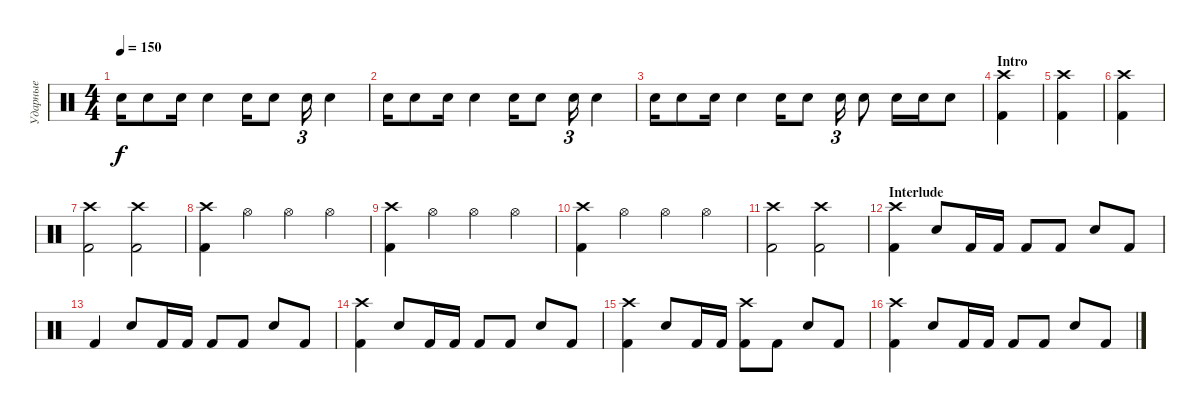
\track ("Ударные" "Ударные") {instrument percussion}
\staff {score}
\articulation defaults
\ts (4 4)
\tempo 150
\clef neutral
\ks c "Electric Snare (hit)".16{dy f} "Electric Snare (hit)".8 "Electric Snare (hit)".16 "Electric Snare (hit)".4 "Electric Snare (hit)".16 "Electric Snare (hit)".8 "Electric Snare (hit)".16{tu (3 2)} "Electric Snare (hit)".4
|
"Electric Snare (hit)".16 "Electric Snare (hit)".8 "Electric Snare (hit)".16 "Electric Snare (hit)".4 "Electric Snare (hit)".16 "Electric Snare (hit)".8 "Electric Snare (hit)".16{tu (3 2)} "Electric Snare (hit)".4 |
"Electric Snare (hit)".16 "Electric Snare (hit)".8 "Electric Snare (hit)".16 "Electric Snare (hit)".4 "Electric Snare (hit)".16 "Electric Snare (hit)".8 "Electric Snare (hit)".16{tu (3 2)} "Electric Snare (hit)".8 "Electric Snare (hit)".16 "Electric Snare (hit)".16 "Electric Snare (hit)".8 |
\section ("" "Intro")
("Crash high (hit)" "Kick (hit) 2").4 |
("Crash high (hit)" "Kick (hit) 2").4 |
("Crash high (hit)" "Kick (hit) 2").4 |
("Crash high (hit)" "Kick (hit) 2").2 ("Crash high (hit)" "Kick (hit) 2").2 |
("Crash high (hit)" "Kick (hit) 2").4 "Hi-Hat (open)".4 "Hi-Hat (open)".4 "Hi-Hat (open)".4 |
("Crash high (hit)" "Kick (hit) 2").4 "Hi-Hat (open)".4 "Hi-Hat (open)".4 "Hi-Hat (open)".4 |
("Crash high (hit)" "Kick (hit) 2").4 "Hi-Hat (open)".4 "Hi-Hat (open)".4 "Hi-Hat (open)".4 |
("Crash high (hit)" "Kick (hit) 2").2 ("Crash high (hit)" "Kick (hit) 2").2 |
\section ("" "Interlude")
("Crash high (hit)" "Kick (hit) 2").4 "Electric Snare (hit)".8 "Kick (hit) 2".16 "Kick (hit) 2".16 "Kick (hit) 2".8 "Kick (hit) 2".8 "Electric Snare (hit)".8 "Kick (hit) 2".8 |
"Kick (hit) 2".4 "Electric Snare (hit)".8 "Kick (hit) 2".16 "Kick (hit) 2".16 "Kick (hit) 2".8 "Kick (hit) 2".8 "Electric Snare (hit)".8 "Kick (hit) 2".8 |
("Crash high (hit)" "Kick (hit) 2").4 "Electric Snare (hit)".8 "Kick (hit) 2".16 "Kick (hit) 2".16 "Kick (hit) 2".8 "Kick (hit) 2".8 "Electric Snare (hit)".8 "Kick (hit) 2".8 |
("Crash high (hit)" "Kick (hit) 2").4 "Electric Snare (hit)".8 "Kick (hit) 2".16 "Kick (hit) 2".16 ("Kick (hit) 2" "Crash high (hit)").8 "Kick (hit) 2".8 "Electric Snare (hit)".8 "Kick (hit) 2".8 |
("Crash high (hit)" "Kick (hit) 2").4 "Electric Snare (hit)".8 "Kick (hit) 2".16 "Kick (hit) 2".16 "Kick (hit) 2".8 "Kick (hit) 2".8 "Electric Snare (hit)".8 "Kick (hit) 2".8
